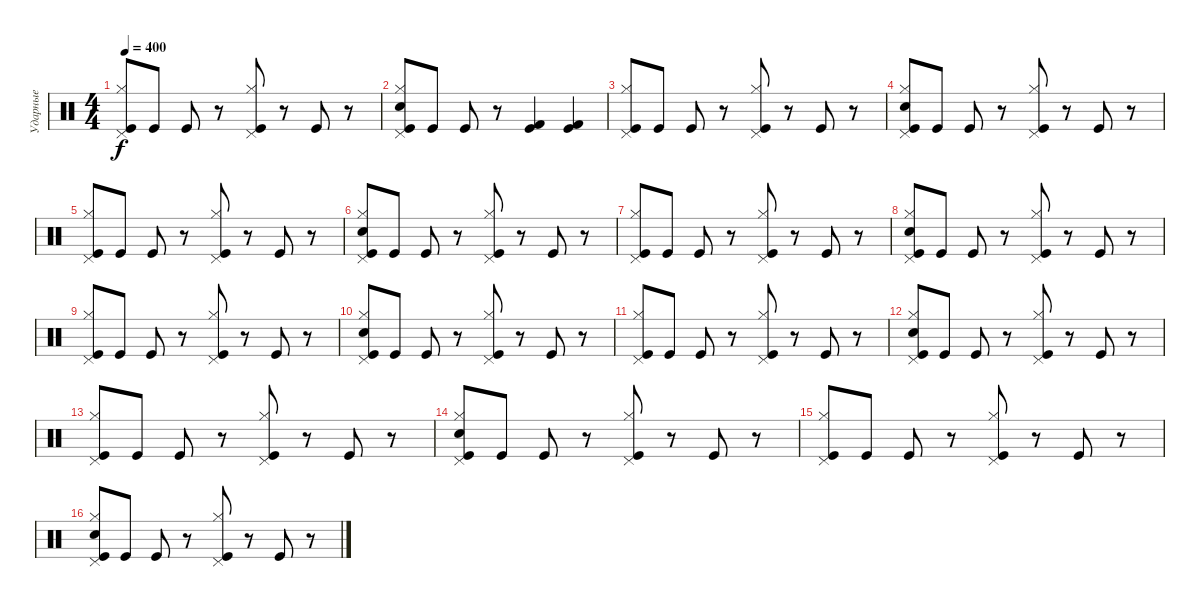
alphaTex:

\track ("Ударные" "Ударные") {instrument percussion}
\staff {score}
\articulation defaults
\ts (4 4)
\tempo 400
\clef neutral
\ks c
("Kick (hit)" "Hi-Hat (closed)" "Pedal Hi-Hat (hit)").8{dy f} "Kick (hit)".8 "Kick (hit)".8 r.8 ("Kick (hit)" "Pedal Hi-Hat (hit)" "Hi-Hat (closed)").8 r.8 "Kick (hit)".8 r.8 |
("Kick (hit)" "Electric Snare (hit)" "Hi-Hat (closed)" "Pedal Hi-Hat (hit)").8 "Kick (hit)".8 "Kick (hit)".8 r.8 ("Kick (hit) 2" "Kick (hit)").4 ("Kick (hit)" "Kick (hit) 2").4 |
("Kick (hit)" "Pedal Hi-Hat (hit)" "Hi-Hat (closed)").8 "Kick (hit)".8 "Kick (hit)".8 r.8 ("Kick (hit)" "Hi-Hat (closed)" "Pedal Hi-Hat (hit)").8 r.8 "Kick (hit)".8 r.8 |
("Kick (hit)" "Electric Snare (hit)" "Hi-Hat (closed)" "Pedal Hi-Hat (hit)").8 "Kick (hit)".8 "Kick (hit)".8 r.8 ("Kick (hit)" "Hi-Hat (closed)" "Pedal Hi-Hat (hit)").8 r.8 "Kick (hit)".8 r.8 |
("Kick (hit)" "Pedal Hi-Hat (hit)" "Hi-Hat (closed)").8 "Kick (hit)".8 "Kick (hit)".8 r.8 ("Kick (hit)" "Hi-Hat (closed)" "Pedal Hi-Hat (hit)").8 r.8 "Kick (hit)".8 r.8 |
("Kick (hit)" "Electric Snare (hit)" "Hi-Hat (closed)" "Pedal Hi-Hat (hit)").8 "Kick (hit)".8 "Kick (hit)".8 r.8 ("Kick (hit)" "Hi-Hat (closed)" "Pedal Hi-Hat (hit)").8 r.8 "Kick (hit)".8 r.8 |
("Kick (hit)" "Pedal Hi-Hat (hit)" "Hi-Hat (closed)").8 "Kick (hit)".8 "Kick (hit)".8 r.8 ("Kick (hit)" "Hi-Hat (closed)" "Pedal Hi-Hat (hit)").8 r.8 "Kick (hit)".8 r.8 |
("Kick (hit)" "Electric Snare (hit)" "Hi-Hat (closed)" "Pedal Hi-Hat (hit)").8 "Kick (hit)".8 "Kick (hit)".8 r.8 ("Kick (hit)" "Hi-Hat (closed)" "Pedal Hi-Hat (hit)").8 r.8 "Kick (hit)".8 r.8 |
("Kick (hit)" "Pedal Hi-Hat (hit)" "Hi-Hat (closed)").8 "Kick (hit)".8 "Kick (hit)".8 r.8 ("Kick (hit)" "Hi-Hat (closed)" "Pedal Hi-Hat (hit)").8 r.8 "Kick (hit)".8 r.8 |
("Kick (hit)" "Electric Snare (hit)" "Hi-Hat (closed)" "Pedal Hi-Hat (hit)").8 "Kick (hit)".8 "Kick (hit)".8 r.8 ("Kick (hit)" "Hi-Hat (closed)" "Pedal Hi-Hat (hit)").8 r.8 "Kick (hit)".8 r.8 |
("Kick (hit)" "Pedal Hi-Hat (hit)" "Hi-Hat (closed)").8 "Kick (hit)".8 "Kick (hit)".8 r.8 ("Kick (hit)" "Hi-Hat (closed)" "Pedal Hi-Hat (hit)").8 r.8 "Kick (hit)".8 r.8 |
("Kick (hit)" "Electric Snare (hit)" "Hi-Hat (closed)" "Pedal Hi-Hat (hit)").8 "Kick (hit)".8 "Kick (hit)".8 r.8 ("Kick (hit)" "Hi-Hat (closed)" "Pedal Hi-Hat (hit)").8 r.8 "Kick (hit)".8 r.8 |
("Kick (hit)" "Pedal Hi-Hat (hit)" "Hi-Hat (closed)").8 "Kick (hit)".8 "Kick (hit)".8 r.8 ("Kick (hit)" "Hi-Hat (closed)" "Pedal Hi-Hat (hit)").8 r.8 "Kick (hit)".8 r.8 |
("Kick (hit)" "Electric Snare (hit)" "Hi-Hat (closed)" "Pedal Hi-Hat (hit)").8 "Kick (hit)".8 "Kick (hit)".8 r.8 ("Kick (hit)" "Hi-Hat (closed)" "Pedal Hi-Hat (hit)").8 r.8 "Kick (hit)".8 r.8 |
("Kick (hit)" "Pedal Hi-Hat (hit)" "Hi-Hat (closed)").8 "Kick (hit)".8 "Kick (hit)".8 r.8 ("Kick (hit)" "Hi-Hat (closed)" "Pedal Hi-Hat (hit)").8 r.8 "Kick (hit)".8 r.8 |
("Kick (hit)" "Electric Snare (hit)" "Hi-Hat (closed)" "Pedal Hi-Hat (hit)").8 "Kick (hit)".8 "Kick (hit)".8 r.8 ("Kick (hit)" "Hi-Hat (closed)" "Pedal Hi-Hat (hit)").8 r.8 "Kick (hit)".8 r.8
